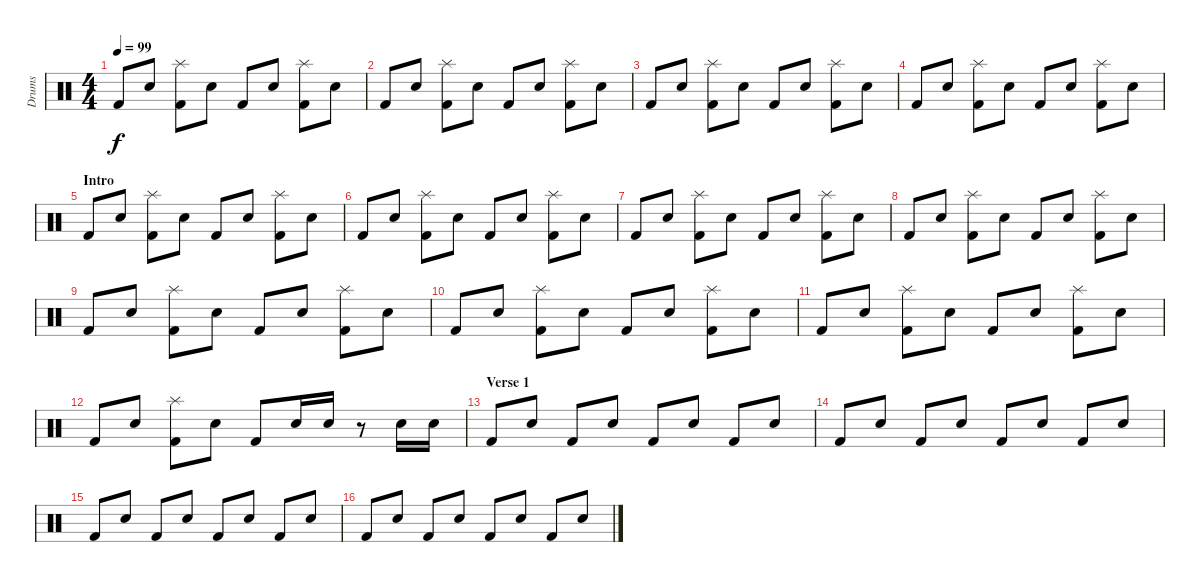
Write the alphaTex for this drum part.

\track ("Drums" "Drums") {instrument percussion}
\staff {score}
\articulation defaults
\ts (4 4)
\tempo 99
\clef neutral
\ks c "Kick (hit) 2".8{dy f} "Snare (hit) 2".8
("Splash (hit)" "Kick (hit) 2").8 "Snare (hit) 2".8 "Kick (hit) 2".8 "Snare (hit) 2".8 ("Splash (hit)" "Kick (hit) 2").8 "Snare (hit) 2".8 |
"Kick (hit) 2".8 "Snare (hit) 2".8 ("Splash (hit)" "Kick (hit) 2").8 "Snare (hit) 2".8 "Kick (hit) 2".8 "Snare (hit) 2".8 ("Splash (hit)" "Kick (hit) 2").8 "Snare (hit) 2".8 |
"Kick (hit) 2".8 "Snare (hit) 2".8 ("Splash (hit)" "Kick (hit) 2").8 "Snare (hit) 2".8 "Kick (hit) 2".8 "Snare (hit) 2".8 ("Splash (hit)" "Kick (hit) 2").8 "Snare (hit) 2".8 |
"Kick (hit) 2".8 "Snare (hit) 2".8 ("Splash (hit)" "Kick (hit) 2").8 "Snare (hit) 2".8 "Kick (hit) 2".8 "Snare (hit) 2".8 ("Splash (hit)" "Kick (hit) 2").8 "Snare (hit) 2".8 |
\section ("" "Intro")
"Kick (hit) 2".8 "Snare (hit) 2".8 ("Splash (hit)" "Kick (hit) 2").8 "Snare (hit) 2".8 "Kick (hit) 2".8 "Snare (hit) 2".8 ("Splash (hit)" "Kick (hit) 2").8 "Snare (hit) 2".8 |
"Kick (hit) 2".8 "Snare (hit) 2".8 ("Splash (hit)" "Kick (hit) 2").8 "Snare (hit) 2".8 "Kick (hit) 2".8 "Snare (hit) 2".8 ("Splash (hit)" "Kick (hit) 2").8 "Snare (hit) 2".8 |
"Kick (hit) 2".8 "Snare (hit) 2".8 ("Splash (hit)" "Kick (hit) 2").8 "Snare (hit) 2".8 "Kick (hit) 2".8 "Snare (hit) 2".8 ("Splash (hit)" "Kick (hit) 2").8 "Snare (hit) 2".8 |
"Kick (hit) 2".8 "Snare (hit) 2".8 ("Splash (hit)" "Kick (hit) 2").8 "Snare (hit) 2".8 "Kick (hit) 2".8 "Snare (hit) 2".8 ("Splash (hit)" "Kick (hit) 2").8 "Snare (hit) 2".8 |
"Kick (hit) 2".8 "Snare (hit) 2".8 ("Splash (hit)" "Kick (hit) 2").8 "Snare (hit) 2".8 "Kick (hit) 2".8 "Snare (hit) 2".8 ("Splash (hit)" "Kick (hit) 2").8 "Snare (hit) 2".8 |
"Kick (hit) 2".8 "Snare (hit) 2".8 ("Splash (hit)" "Kick (hit) 2").8 "Snare (hit) 2".8 "Kick (hit) 2".8 "Snare (hit) 2".8 ("Splash (hit)" "Kick (hit) 2").8 "Snare (hit) 2".8 |
"Kick (hit) 2".8 "Snare (hit) 2".8 ("Splash (hit)" "Kick (hit) 2").8 "Snare (hit) 2".8 "Kick (hit) 2".8 "Snare (hit) 2".8 ("Splash (hit)" "Kick (hit) 2").8 "Snare (hit) 2".8 |
"Kick (hit) 2".8 "Snare (hit) 2".8 ("Splash (hit)" "Kick (hit) 2").8 "Snare (hit) 2".8 "Kick (hit) 2".8 "Snare (hit) 2".16 "Snare (hit) 2".16 r.8 "Snare (hit) 2".16 "Snare (hit) 2".16 |
\section ("" "Verse 1")
"Kick (hit) 2".8 "Snare (hit) 2".8 "Kick (hit) 2".8 "Snare (hit) 2".8 "Kick (hit) 2".8 "Snare (hit) 2".8 "Kick (hit) 2".8 "Snare (hit) 2".8 |
"Kick (hit) 2".8 "Snare (hit) 2".8 "Kick (hit) 2".8 "Snare (hit) 2".8 "Kick (hit) 2".8 "Snare (hit) 2".8 "Kick (hit) 2".8 "Snare (hit) 2".8 |
"Kick (hit) 2".8 "Snare (hit) 2".8 "Kick (hit) 2".8 "Snare (hit) 2".8 "Kick (hit) 2".8 "Snare (hit) 2".8 "Kick (hit) 2".8 "Snare (hit) 2".8 |
"Kick (hit) 2".8 "Snare (hit) 2".8 "Kick (hit) 2".8 "Snare (hit) 2".8 "Kick (hit) 2".8 "Snare (hit) 2".8 "Kick (hit) 2".8 "Snare (hit) 2".8
